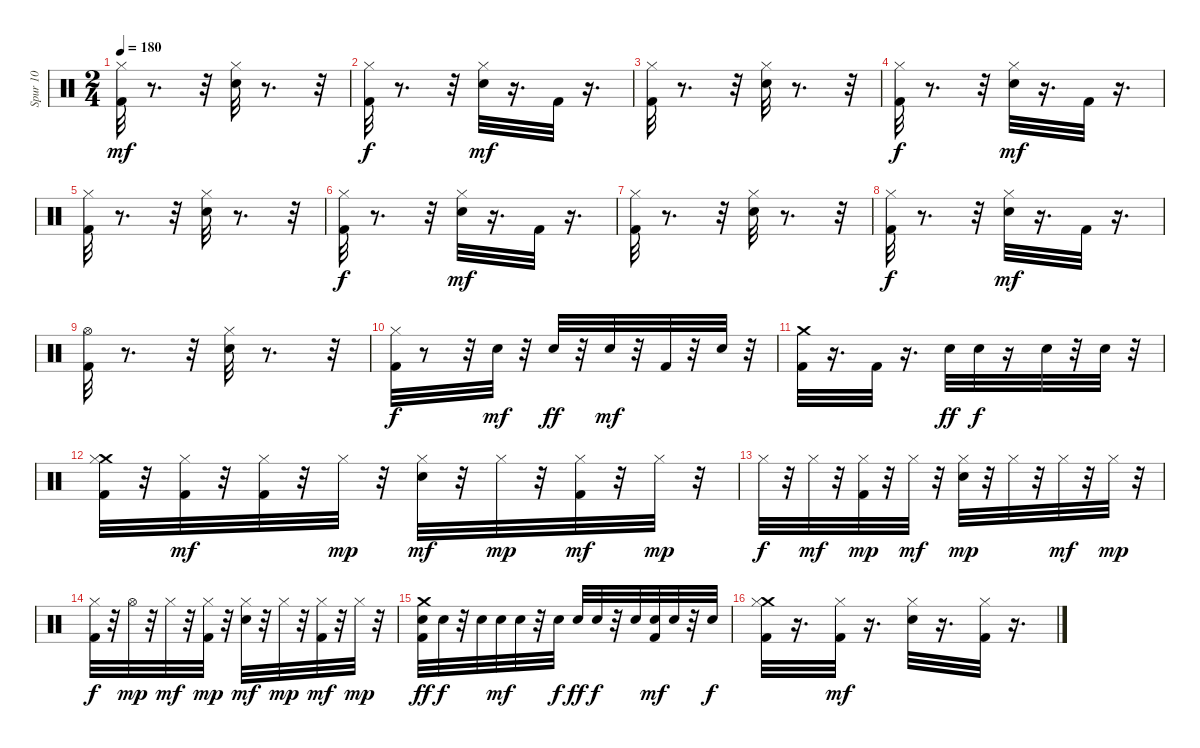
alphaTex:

\track ("Spur 10" "Spur 10") {instrument percussion}
\staff {score}
\articulation defaults
\ts (2 4)
\tempo 180
\clef neutral
\ks c
("Hi-Hat (closed)" "Kick (hit) 2").32{dy mf} r.8{d} r.32 ("Electric Snare (hit)" "Hi-Hat (closed)").32 r.8{d} r.32 |
("Hi-Hat (closed)" "Kick (hit) 2").32{dy f} r.8{d} r.32 ("Electric Snare (hit)" "Hi-Hat (closed)").32{dy mf} r.16{d} "Kick (hit) 2".32 r.16{d} |
("Hi-Hat (closed)" "Kick (hit) 2").32 r.8{d} r.32 ("Electric Snare (hit)" "Hi-Hat (closed)").32 r.8{d} r.32 |
("Hi-Hat (closed)" "Kick (hit) 2").32{dy f} r.8{d} r.32 ("Electric Snare (hit)" "Hi-Hat (closed)").32{dy mf} r.16{d} "Kick (hit) 2".32 r.16{d} |
("Hi-Hat (closed)" "Kick (hit) 2").32 r.8{d} r.32 ("Electric Snare (hit)" "Hi-Hat (closed)").32 r.8{d} r.32 |
("Hi-Hat (closed)" "Kick (hit) 2").32{dy f} r.8{d} r.32 ("Electric Snare (hit)" "Hi-Hat (closed)").32{dy mf} r.16{d} "Kick (hit) 2".32 r.16{d} |
("Hi-Hat (closed)" "Kick (hit) 2").32 r.8{d} r.32 ("Electric Snare (hit)" "Hi-Hat (closed)").32 r.8{d} r.32 |
("Hi-Hat (closed)" "Kick (hit) 2").32{dy f} r.8{d} r.32 ("Electric Snare (hit)" "Hi-Hat (closed)").32{dy mf} r.16{d} "Kick (hit) 2".32 r.16{d} |
("Hi-Hat (open)" "Kick (hit) 2").32 r.8{d} r.32 ("Electric Snare (hit)" "Hi-Hat (closed)").32 r.8{d} r.32 |
("Hi-Hat (closed)" "Kick (hit) 2").32{dy f} r.8 r.32 "Electric Snare (hit)".32{dy mf} r.32 "Electric Snare (hit)".32{dy ff} r.32 "Electric Snare (hit)".32{dy mf} r.32 "Kick (hit) 2".32 r.32 "Electric Snare (hit)".32 r.32 |
("Crash medium (hit)" "Kick (hit) 2").32 r.16{d} "Kick (hit) 2".32 r.16{d} "Electric Snare (hit)".32{dy ff} "Electric Snare (hit)".32{dy f} r.16 "Electric Snare (hit)".32 r.32 "Electric Snare (hit)".32 r.32 |
("Crash medium (hit)" "Hi-Hat (closed)" "Kick (hit) 2").32 r.32 ("Hi-Hat (closed)" "Kick (hit) 2").32{dy mf} r.32 ("Hi-Hat (closed)" "Kick (hit) 2").32 r.32 "Hi-Hat (closed)".32{dy mp} r.32 ("Electric Snare (hit)" "Hi-Hat (closed)").32{dy mf} r.32 "Hi-Hat (closed)".32{dy mp} r.32 ("Hi-Hat (closed)" "Kick (hit) 2").32{dy mf} r.32 "Hi-Hat (closed)".32{dy mp} r.32 |
"Hi-Hat (closed)".32{dy f} r.32 "Hi-Hat (closed)".32{dy mf} r.32 ("Hi-Hat (closed)" "Kick (hit) 2").32{dy mp} r.32 "Hi-Hat (closed)".32{dy mf} r.32 ("Electric Snare (hit)" "Hi-Hat (closed)").32{dy mp} r.32 "Hi-Hat (closed)".32 r.32 "Hi-Hat (closed)".32{dy mf} r.32 "Hi-Hat (closed)".32{dy mp} r.32 |
("Hi-Hat (closed)" "Kick (hit) 2").32{dy f} r.32 "Hi-Hat (open)".32{dy mp} r.32 "Hi-Hat (closed)".32{dy mf} r.32 ("Hi-Hat (closed)" "Kick (hit) 2").32{dy mp} r.32 ("Electric Snare (hit)" "Hi-Hat (closed)").32{dy mf} r.32 "Hi-Hat (closed)".32{dy mp} r.32 ("Hi-Hat (closed)" "Kick (hit) 2").32{dy mf} r.32 "Hi-Hat (closed)".32{dy mp} r.32 |
("Electric Snare (hit)" "Crash medium (hit)" "Kick (hit) 2").32{dy ff} "Electric Snare (hit)".32{dy f} r.32 "Electric Snare (hit)".32 "Electric Snare (hit)".32{dy mf} "Electric Snare (hit)".32 r.32 "Electric Snare (hit)".32{dy f} "Electric Snare (hit)".32{dy ff} "Electric Snare (hit)".32{dy f} r.32 "Electric Snare (hit)".32 ("Electric Snare (hit)" "Kick (hit) 2").32{dy mf} "Electric Snare (hit)".32 r.32 "Electric Snare (hit)".32{dy f} |
("Crash medium (hit)" "Hi-Hat (closed)" "Kick (hit) 2").32 r.16{d} ("Hi-Hat (closed)" "Kick (hit) 2").32{dy mf} r.16{d} ("Electric Snare (hit)" "Hi-Hat (closed)").32 r.16{d} ("Hi-Hat (closed)" "Kick (hit) 2").32 r.16{d}
